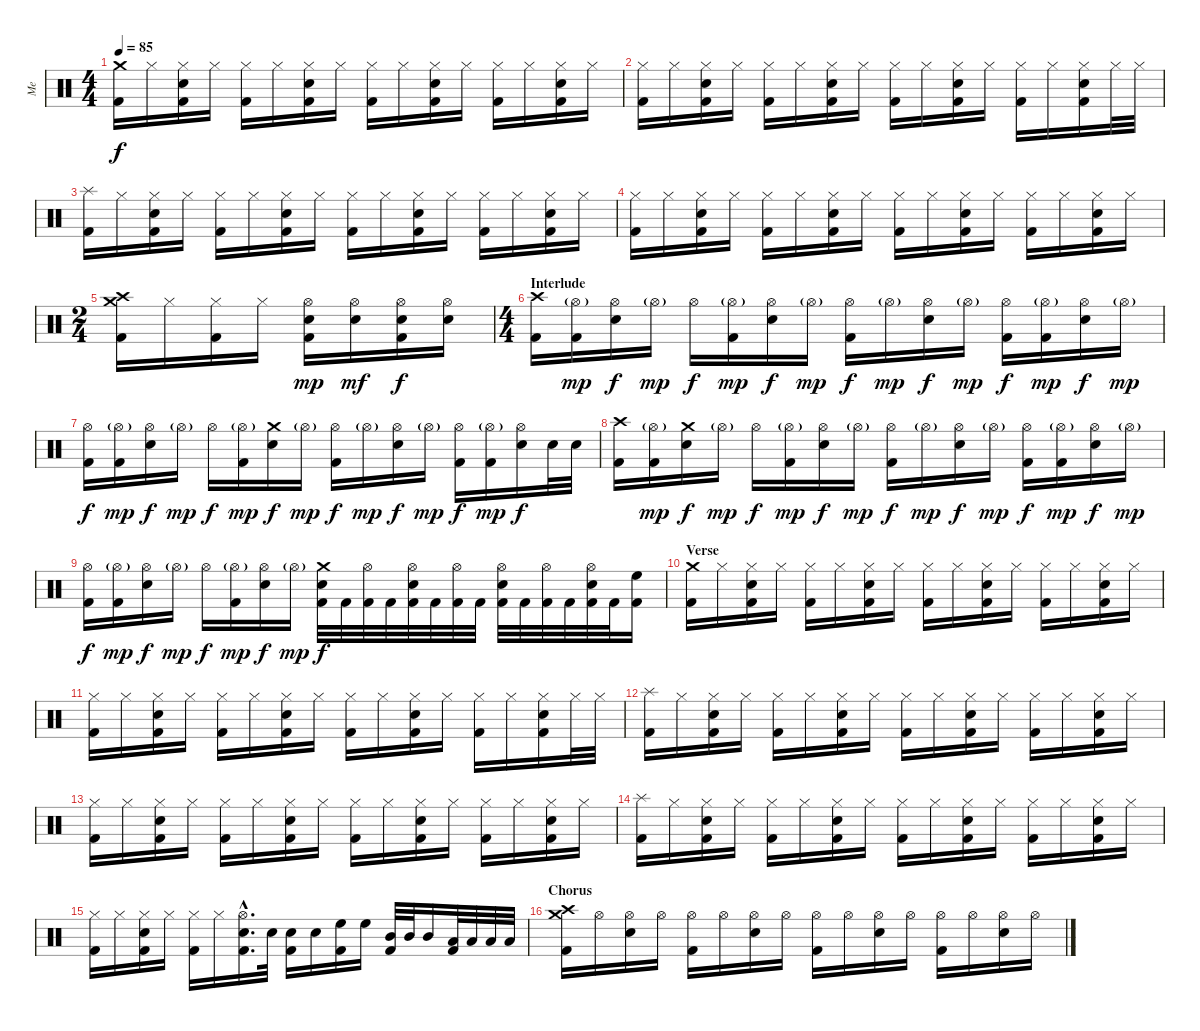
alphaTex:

\track ("Me" "Me") {instrument percussion}
\staff {score}
\articulation defaults
\ts (4 4)
\tempo 85
\clef neutral
\ks c
("Crash medium (hit)" "Kick (hit) 2").16{dy f} "Hi-Hat (closed)".16 ("Hi-Hat (closed)" "Electric Snare (hit)" "Kick (hit) 2").16 "Hi-Hat (closed)".16 ("Hi-Hat (closed)" "Kick (hit) 2").16 "Hi-Hat (closed)".16 ("Hi-Hat (closed)" "Electric Snare (hit)" "Kick (hit) 2").16 "Hi-Hat (closed)".16 ("Hi-Hat (closed)" "Kick (hit) 2").16 "Hi-Hat (closed)".16 ("Hi-Hat (closed)" "Electric Snare (hit)" "Kick (hit) 2").16 "Hi-Hat (closed)".16 ("Hi-Hat (closed)" "Kick (hit) 2").16 "Hi-Hat (closed)".16 ("Hi-Hat (closed)" "Electric Snare (hit)" "Kick (hit) 2").16 "Hi-Hat (closed)".16 |
("Hi-Hat (closed)" "Kick (hit) 2").16 "Hi-Hat (closed)".16 ("Hi-Hat (closed)" "Electric Snare (hit)" "Kick (hit) 2").16 "Hi-Hat (closed)".16 ("Hi-Hat (closed)" "Kick (hit) 2").16 "Hi-Hat (closed)".16 ("Hi-Hat (closed)" "Electric Snare (hit)" "Kick (hit) 2").16 "Hi-Hat (closed)".16 ("Hi-Hat (closed)" "Kick (hit) 2").16 "Hi-Hat (closed)".16 ("Hi-Hat (closed)" "Electric Snare (hit)" "Kick (hit) 2").16 "Hi-Hat (closed)".16 ("Hi-Hat (closed)" "Kick (hit) 2").16 "Hi-Hat (closed)".16 ("Hi-Hat (closed)" "Electric Snare (hit)" "Kick (hit) 2").16 "Hi-Hat (closed)".32 "Hi-Hat (closed)".32 |
("Splash (hit)" "Kick (hit) 2").16 "Hi-Hat (closed)".16 ("Hi-Hat (closed)" "Electric Snare (hit)" "Kick (hit) 2").16 "Hi-Hat (closed)".16 ("Hi-Hat (closed)" "Kick (hit) 2").16 "Hi-Hat (closed)".16 ("Hi-Hat (closed)" "Electric Snare (hit)" "Kick (hit) 2").16 "Hi-Hat (closed)".16 ("Hi-Hat (closed)" "Kick (hit) 2").16 "Hi-Hat (closed)".16 ("Hi-Hat (closed)" "Electric Snare (hit)" "Kick (hit) 2").16 "Hi-Hat (closed)".16 ("Hi-Hat (closed)" "Kick (hit) 2").16 "Hi-Hat (closed)".16 ("Hi-Hat (closed)" "Electric Snare (hit)" "Kick (hit) 2").16 "Hi-Hat (closed)".16 |
("Hi-Hat (closed)" "Kick (hit) 2").16 "Hi-Hat (closed)".16 ("Hi-Hat (closed)" "Electric Snare (hit)" "Kick (hit) 2").16 "Hi-Hat (closed)".16 ("Hi-Hat (closed)" "Kick (hit) 2").16 "Hi-Hat (closed)".16 ("Hi-Hat (closed)" "Electric Snare (hit)" "Kick (hit) 2").16 "Hi-Hat (closed)".16 ("Hi-Hat (closed)" "Kick (hit) 2").16 "Hi-Hat (closed)".16 ("Hi-Hat (closed)" "Electric Snare (hit)" "Kick (hit) 2").16 "Hi-Hat (closed)".16 ("Hi-Hat (closed)" "Kick (hit) 2").16 "Hi-Hat (closed)".16 ("Hi-Hat (closed)" "Electric Snare (hit)" "Kick (hit) 2").16 "Hi-Hat (closed)".16 |
\ts (2 4)
("Crash high (hit)" "Crash medium (hit)" "Kick (hit) 2").16 "Hi-Hat (closed)".16 ("Hi-Hat (closed)" "Kick (hit) 2").16 "Hi-Hat (closed)".16 ("Hi-Hat (open)" "Electric Snare (hit)" "Kick (hit) 2").16{dy mp} ("Hi-Hat (open)" "Electric Snare (hit)").16{dy mf} ("Hi-Hat (open)" "Electric Snare (hit)" "Kick (hit) 2").16{dy f} ("Hi-Hat (open)" "Electric Snare (hit)").16 |
\ts (4 4)
\section ("" "Interlude")
("Crash high (hit)" "Kick (hit) 2").16 ("Hi-Hat (open)"{g} "Kick (hit) 2").16{dy mp} ("Hi-Hat (open)" "Electric Snare (hit)").16{dy f} "Hi-Hat (open)"{g}.16{dy mp} "Hi-Hat (open)".16{dy f} ("Hi-Hat (open)"{g} "Kick (hit) 2").16{dy mp} ("Hi-Hat (open)" "Electric Snare (hit)").16{dy f} "Hi-Hat (open)"{g}.16{dy mp} ("Hi-Hat (open)" "Kick (hit) 2").16{dy f} "Hi-Hat (open)"{g}.16{dy mp} ("Hi-Hat (open)" "Electric Snare (hit)").16{dy f} "Hi-Hat (open)"{g}.16{dy mp} ("Hi-Hat (open)" "Kick (hit) 2").16{dy f} ("Hi-Hat (open)"{g} "Kick (hit) 2").16{dy mp} ("Hi-Hat (open)" "Electric Snare (hit)").16{dy f} "Hi-Hat (open)"{g}.16{dy mp} |
("Hi-Hat (open)" "Kick (hit) 2").16{dy f} ("Hi-Hat (open)"{g} "Kick (hit) 2").16{dy mp} ("Hi-Hat (open)" "Electric Snare (hit)").16{dy f} "Hi-Hat (open)"{g}.16{dy mp} "Hi-Hat (open)".16{dy f} ("Hi-Hat (open)"{g} "Kick (hit) 2").16{dy mp} ("Crash medium (hit)" "Electric Snare (hit)").16{dy f} "Hi-Hat (open)"{g}.16{dy mp} ("Hi-Hat (open)" "Kick (hit) 2").16{dy f} "Hi-Hat (open)"{g}.16{dy mp} ("Hi-Hat (open)" "Electric Snare (hit)").16{dy f} "Hi-Hat (open)"{g}.16{dy mp} ("Hi-Hat (open)" "Kick (hit) 2").16{dy f} ("Hi-Hat (open)"{g} "Kick (hit) 2").16{dy mp} ("Hi-Hat (open)" "Electric Snare (hit)").16{dy f} "Electric Snare (hit)".32 "Electric Snare (hit)".32 |
("Crash high (hit)" "Kick (hit) 2").16 ("Hi-Hat (open)"{g} "Kick (hit) 2").16{dy mp} ("Crash medium (hit)" "Electric Snare (hit)").16{dy f} "Hi-Hat (open)"{g}.16{dy mp} "Hi-Hat (open)".16{dy f} ("Hi-Hat (open)"{g} "Kick (hit) 2").16{dy mp} ("Hi-Hat (open)" "Electric Snare (hit)").16{dy f} "Hi-Hat (open)"{g}.16{dy mp} ("Hi-Hat (open)" "Kick (hit) 2").16{dy f} "Hi-Hat (open)"{g}.16{dy mp} ("Hi-Hat (open)" "Electric Snare (hit)").16{dy f} "Hi-Hat (open)"{g}.16{dy mp} ("Hi-Hat (open)" "Kick (hit) 2").16{dy f} ("Hi-Hat (open)"{g} "Kick (hit) 2").16{dy mp} ("Hi-Hat (open)" "Electric Snare (hit)").16{dy f} "Hi-Hat (open)"{g}.16{dy mp} |
("Hi-Hat (open)" "Kick (hit) 2").16{dy f} ("Hi-Hat (open)"{g} "Kick (hit) 2").16{dy mp} ("Hi-Hat (open)" "Electric Snare (hit)").16{dy f} "Hi-Hat (open)"{g}.16{dy mp} "Hi-Hat (open)".16{dy f} ("Hi-Hat (open)"{g} "Kick (hit) 2").16{dy mp} ("Hi-Hat (open)" "Electric Snare (hit)").16{dy f} "Hi-Hat (open)"{g}.16{dy mp} ("Crash medium (hit)" "Electric Snare (hit)" "Kick (hit) 2").32{dy f} "Kick (hit) 2".32 ("Hi-Hat (open)" "Kick (hit) 2").32 "Kick (hit) 2".32 ("Hi-Hat (open)" "Electric Snare (hit)" "Kick (hit) 2").32 "Kick (hit) 2".32 ("Hi-Hat (open)" "Kick (hit) 2").32 "Kick (hit) 2".32 ("Hi-Hat (open)" "Electric Snare (hit)" "Kick (hit) 2").32 "Kick (hit) 2".32 ("Hi-Hat (open)" "Kick (hit) 2").32 "Kick (hit) 2".32 ("Hi-Hat (open)" "Electric Snare (hit)" "Kick (hit) 2").32 "Kick (hit) 2".32 ("High Floor Tom (hit)" "Kick (hit) 2").16 |
\section ("" "Verse")
("Crash medium (hit)" "Kick (hit) 2").16 "Hi-Hat (closed)".16 ("Hi-Hat (closed)" "Electric Snare (hit)" "Kick (hit) 2").16 "Hi-Hat (closed)".16 ("Hi-Hat (closed)" "Kick (hit) 2").16 "Hi-Hat (closed)".16 ("Hi-Hat (closed)" "Electric Snare (hit)" "Kick (hit) 2").16 "Hi-Hat (closed)".16 ("Hi-Hat (closed)" "Kick (hit) 2").16 "Hi-Hat (closed)".16 ("Hi-Hat (closed)" "Electric Snare (hit)" "Kick (hit) 2").16 "Hi-Hat (closed)".16 ("Hi-Hat (closed)" "Kick (hit) 2").16 "Hi-Hat (closed)".16 ("Hi-Hat (closed)" "Electric Snare (hit)" "Kick (hit) 2").16 "Hi-Hat (closed)".16 |
("Hi-Hat (closed)" "Kick (hit) 2").16 "Hi-Hat (closed)".16 ("Hi-Hat (closed)" "Electric Snare (hit)" "Kick (hit) 2").16 "Hi-Hat (closed)".16 ("Hi-Hat (closed)" "Kick (hit) 2").16 "Hi-Hat (closed)".16 ("Hi-Hat (closed)" "Electric Snare (hit)" "Kick (hit) 2").16 "Hi-Hat (closed)".16 ("Hi-Hat (closed)" "Kick (hit) 2").16 "Hi-Hat (closed)".16 ("Hi-Hat (closed)" "Electric Snare (hit)" "Kick (hit) 2").16 "Hi-Hat (closed)".16 ("Hi-Hat (closed)" "Kick (hit) 2").16 "Hi-Hat (closed)".16 ("Hi-Hat (closed)" "Electric Snare (hit)" "Kick (hit) 2").16 "Hi-Hat (closed)".32 "Hi-Hat (closed)".32 |
("Splash (hit)" "Kick (hit) 2").16 "Hi-Hat (closed)".16 ("Hi-Hat (closed)" "Electric Snare (hit)" "Kick (hit) 2").16 "Hi-Hat (closed)".16 ("Hi-Hat (closed)" "Kick (hit) 2").16 "Hi-Hat (closed)".16 ("Hi-Hat (closed)" "Electric Snare (hit)" "Kick (hit) 2").16 "Hi-Hat (closed)".16 ("Hi-Hat (closed)" "Kick (hit) 2").16 "Hi-Hat (closed)".16 ("Hi-Hat (closed)" "Electric Snare (hit)" "Kick (hit) 2").16 "Hi-Hat (closed)".16 ("Hi-Hat (closed)" "Kick (hit) 2").16 "Hi-Hat (closed)".16 ("Hi-Hat (closed)" "Electric Snare (hit)" "Kick (hit) 2").16 "Hi-Hat (closed)".16 |
("Hi-Hat (closed)" "Kick (hit) 2").16 "Hi-Hat (closed)".16 ("Hi-Hat (closed)" "Electric Snare (hit)" "Kick (hit) 2").16 "Hi-Hat (closed)".16 ("Hi-Hat (closed)" "Kick (hit) 2").16 "Hi-Hat (closed)".16 ("Hi-Hat (closed)" "Electric Snare (hit)" "Kick (hit) 2").16 "Hi-Hat (closed)".16 ("Hi-Hat (closed)" "Kick (hit) 2").16 "Hi-Hat (closed)".16 ("Hi-Hat (closed)" "Electric Snare (hit)" "Kick (hit) 2").16 "Hi-Hat (closed)".16 ("Hi-Hat (closed)" "Kick (hit) 2").16 "Hi-Hat (closed)".16 ("Hi-Hat (closed)" "Electric Snare (hit)" "Kick (hit) 2").16 "Hi-Hat (closed)".16 |
("Splash (hit)" "Kick (hit) 2").16 "Hi-Hat (closed)".16 ("Hi-Hat (closed)" "Electric Snare (hit)" "Kick (hit) 2").16 "Hi-Hat (closed)".16 ("Hi-Hat (closed)" "Kick (hit) 2").16 "Hi-Hat (closed)".16 ("Hi-Hat (closed)" "Electric Snare (hit)" "Kick (hit) 2").16 "Hi-Hat (closed)".16 ("Hi-Hat (closed)" "Kick (hit) 2").16 "Hi-Hat (closed)".16 ("Hi-Hat (closed)" "Electric Snare (hit)" "Kick (hit) 2").16 "Hi-Hat (closed)".16 ("Hi-Hat (closed)" "Kick (hit) 2").16 "Hi-Hat (closed)".16 ("Hi-Hat (closed)" "Electric Snare (hit)" "Kick (hit) 2").16 "Hi-Hat (closed)".16 |
("Hi-Hat (closed)" "Kick (hit) 2").16 "Hi-Hat (closed)".16 ("Hi-Hat (closed)" "Electric Snare (hit)" "Kick (hit) 2").16 "Hi-Hat (closed)".16 ("Hi-Hat (closed)" "Kick (hit) 2").16 "Hi-Hat (closed)".16 ("Hi-Hat (open)"{hac} "Electric Snare (hit)"{hac} "Kick (hit) 2"{hac}).16{d} "Electric Snare (hit)".32 ("Electric Snare (hit)" "Kick (hit) 2").16 "Electric Snare (hit)".16 ("High Floor Tom (hit)" "Kick (hit) 2").16 "High Floor Tom (hit)".16 ("Mid Tom (hit)" "Kick (hit) 2").32 "Mid Tom (hit)".32 "Mid Tom (hit)".16 ("Low Tom (hit)" "Kick (hit) 2").32 "Low Tom (hit)".32 "Low Tom (hit)".32 "Low Tom (hit)".32 |
\section ("" "Chorus")
("Crash high (hit)" "Crash medium (hit)" "Kick (hit) 2").16 "Hi-Hat (open)".16 ("Hi-Hat (open)" "Electric Snare (hit)").16 "Hi-Hat (open)".16 ("Hi-Hat (open)" "Kick (hit) 2").16 "Hi-Hat (open)".16 ("Hi-Hat (open)" "Electric Snare (hit)").16 "Hi-Hat (open)".16 ("Hi-Hat (open)" "Kick (hit) 2").16 "Hi-Hat (open)".16 ("Hi-Hat (open)" "Electric Snare (hit)").16 "Hi-Hat (open)".16 ("Hi-Hat (open)" "Kick (hit) 2").16 "Hi-Hat (open)".16 ("Hi-Hat (open)" "Electric Snare (hit)").16 "Hi-Hat (open)".16
